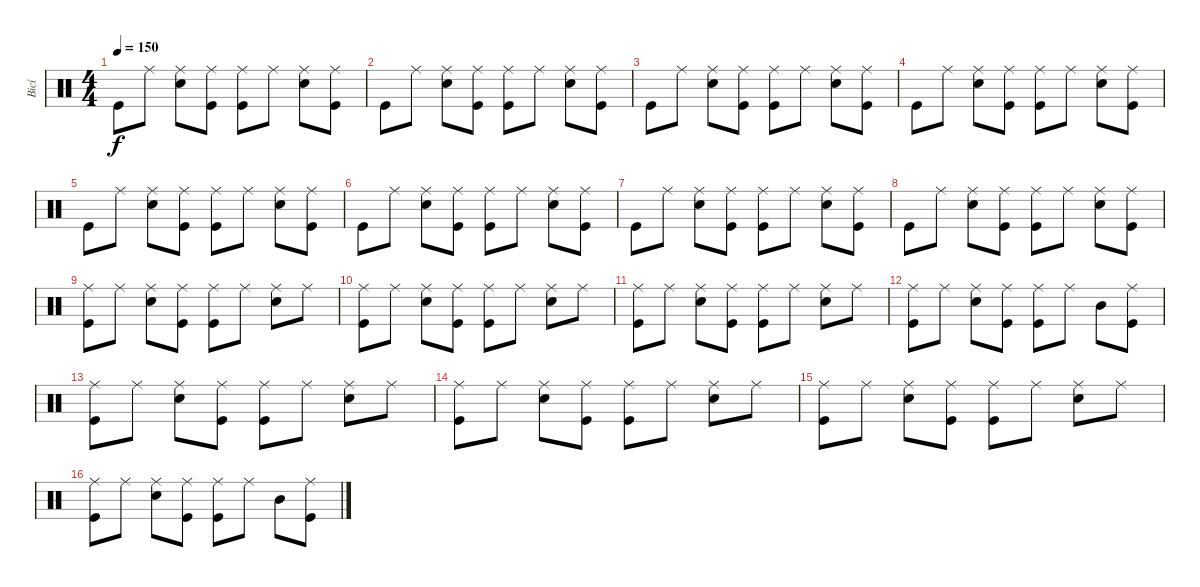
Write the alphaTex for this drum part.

\track ("Bicí" "Bicí") {instrument percussion}
\staff {score}
\articulation defaults
\ts (4 4)
\tempo 150
\clef neutral
\ks c "Kick (hit)".8{dy f} "Ride (middle)".8
("Ride (middle)" "Snare (hit) 2").8 ("Ride (middle)" "Kick (hit)").8 ("Ride (middle)" "Kick (hit)").8 "Ride (middle)".8 ("Ride (middle)" "Snare (hit) 2").8 ("Ride (middle)" "Kick (hit)").8 |
"Kick (hit)".8 "Ride (middle)".8 ("Ride (middle)" "Snare (hit) 2").8 ("Ride (middle)" "Kick (hit)").8 ("Ride (middle)" "Kick (hit)").8 "Ride (middle)".8 ("Ride (middle)" "Snare (hit) 2").8 ("Ride (middle)" "Kick (hit)").8 |
"Kick (hit)".8 "Ride (middle)".8 ("Ride (middle)" "Snare (hit) 2").8 ("Ride (middle)" "Kick (hit)").8 ("Ride (middle)" "Kick (hit)").8 "Ride (middle)".8 ("Ride (middle)" "Snare (hit) 2").8 ("Ride (middle)" "Kick (hit)").8 |
"Kick (hit)".8 "Ride (middle)".8 ("Ride (middle)" "Snare (hit) 2").8 ("Ride (middle)" "Kick (hit)").8 ("Ride (middle)" "Kick (hit)").8 "Ride (middle)".8 ("Ride (middle)" "Snare (hit) 2").8 ("Ride (middle)" "Kick (hit)").8 |
"Kick (hit)".8 "Ride (middle)".8 ("Ride (middle)" "Snare (hit) 2").8 ("Ride (middle)" "Kick (hit)").8 ("Ride (middle)" "Kick (hit)").8 "Ride (middle)".8 ("Ride (middle)" "Snare (hit) 2").8 ("Ride (middle)" "Kick (hit)").8 |
"Kick (hit)".8 "Ride (middle)".8 ("Ride (middle)" "Snare (hit) 2").8 ("Ride (middle)" "Kick (hit)").8 ("Ride (middle)" "Kick (hit)").8 "Ride (middle)".8 ("Ride (middle)" "Snare (hit) 2").8 ("Ride (middle)" "Kick (hit)").8 |
"Kick (hit)".8 "Ride (middle)".8 ("Ride (middle)" "Snare (hit) 2").8 ("Ride (middle)" "Kick (hit)").8 ("Ride (middle)" "Kick (hit)").8 "Ride (middle)".8 ("Ride (middle)" "Snare (hit) 2").8 ("Ride (middle)" "Kick (hit)").8 |
"Kick (hit)".8 "Ride (middle)".8 ("Ride (middle)" "Snare (hit) 2").8 ("Ride (middle)" "Kick (hit)").8 ("Ride (middle)" "Kick (hit)").8 "Ride (middle)".8 ("Ride (middle)" "Snare (hit) 2").8 ("Ride (middle)" "Kick (hit)").8 |
("Ride (middle)" "Kick (hit)").8 "Ride (middle)".8 ("Ride (middle)" "Snare (hit) 2").8 ("Ride (middle)" "Kick (hit)").8 ("Ride (middle)" "Kick (hit)").8 "Ride (middle)".8 ("Ride (middle)" "Snare (hit) 2").8 "Ride (middle)".8 |
("Ride (middle)" "Kick (hit)").8 "Ride (middle)".8 ("Ride (middle)" "Snare (hit) 2").8 ("Ride (middle)" "Kick (hit)").8 ("Ride (middle)" "Kick (hit)").8 "Ride (middle)".8 ("Ride (middle)" "Snare (hit) 2").8 "Ride (middle)".8 |
("Ride (middle)" "Kick (hit)").8 "Ride (middle)".8 ("Ride (middle)" "Snare (hit) 2").8 ("Ride (middle)" "Kick (hit)").8 ("Ride (middle)" "Kick (hit)").8 "Ride (middle)".8 ("Ride (middle)" "Snare (hit) 2").8 "Ride (middle)".8 |
("Ride (middle)" "Kick (hit)").8 "Ride (middle)".8 ("Ride (middle)" "Snare (hit) 2").8 ("Ride (middle)" "Kick (hit)").8 ("Ride (middle)" "Kick (hit)").8 "Ride (middle)".8 "Mid Tom (hit)".8 ("Ride (middle)" "Kick (hit)").8 |
("Ride (middle)" "Kick (hit)").8 "Ride (middle)".8 ("Ride (middle)" "Snare (hit) 2").8 ("Ride (middle)" "Kick (hit)").8 ("Ride (middle)" "Kick (hit)").8 "Ride (middle)".8 ("Ride (middle)" "Snare (hit) 2").8 "Ride (middle)".8 |
("Ride (middle)" "Kick (hit)").8 "Ride (middle)".8 ("Ride (middle)" "Snare (hit) 2").8 ("Ride (middle)" "Kick (hit)").8 ("Ride (middle)" "Kick (hit)").8 "Ride (middle)".8 ("Ride (middle)" "Snare (hit) 2").8 "Ride (middle)".8 |
("Ride (middle)" "Kick (hit)").8 "Ride (middle)".8 ("Ride (middle)" "Snare (hit) 2").8 ("Ride (middle)" "Kick (hit)").8 ("Ride (middle)" "Kick (hit)").8 "Ride (middle)".8 ("Ride (middle)" "Snare (hit) 2").8 "Ride (middle)".8 |
("Ride (middle)" "Kick (hit)").8 "Ride (middle)".8 ("Ride (middle)" "Snare (hit) 2").8 ("Ride (middle)" "Kick (hit)").8 ("Ride (middle)" "Kick (hit)").8 "Ride (middle)".8 "Mid Tom (hit)".8 ("Ride (middle)" "Kick (hit)").8
